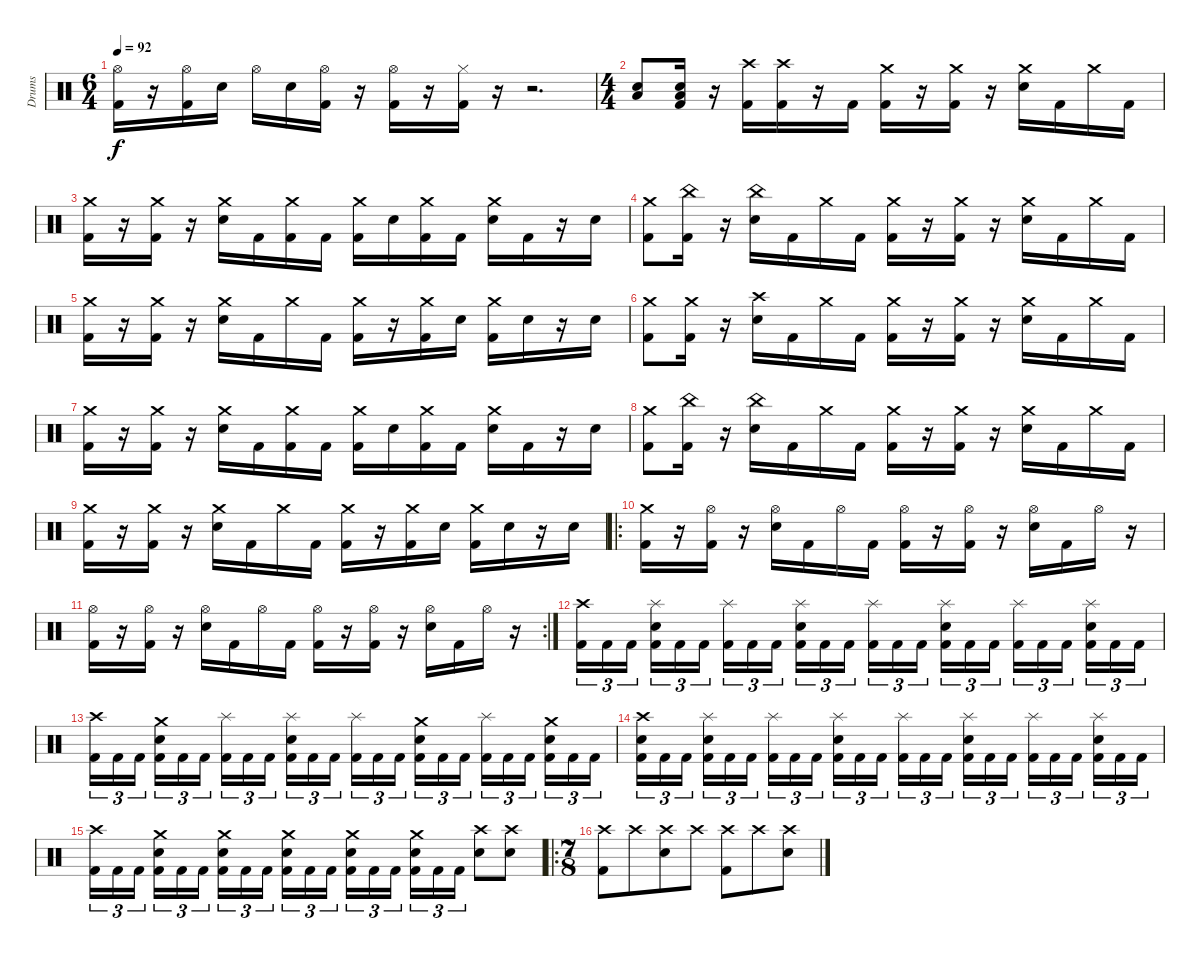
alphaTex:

\track ("Drums" "Drums") {instrument percussion}
\staff {score}
\articulation defaults
\ts (6 4)
\tempo 92
\clef neutral
\ks c
("Hi-Hat (open)" "Kick (hit) 2").16{dy f} r.16 ("Hi-Hat (open)" "Kick (hit) 2").16 "Snare (hit) 2".16 "Hi-Hat (open)".16 "Snare (hit) 2".16 ("Hi-Hat (open)" "Kick (hit) 2").16 r.16 ("Hi-Hat (open)" "Kick (hit) 2").16 r.16 ("Hi-Hat (closed)" "Kick (hit) 2").16 r.16 r.2{d} |
\ts (4 4)
("Low Floor Tom (hit)" "Snare (hit) 2").8 ("Low Floor Tom (hit)" "Snare (hit) 2" "Kick (hit) 2").16 r.16 ("Crash high (hit)" "Kick (hit) 2").16 ("Crash high (hit)" "Kick (hit) 2").16 r.16 "Kick (hit) 2".16 ("Crash medium (hit)" "Kick (hit) 2").16 r.16 ("Crash medium (hit)" "Kick (hit) 2").16 r.16 ("Crash medium (hit)" "Snare (hit) 2").16 "Kick (hit) 2".16 "Crash medium (hit)".16 "Kick (hit) 2".16 |
("Crash medium (hit)" "Kick (hit) 2").16 r.16 ("Crash medium (hit)" "Kick (hit) 2").16 r.16 ("Crash medium (hit)" "Snare (hit) 2").16 "Kick (hit) 2".16 ("Crash medium (hit)" "Kick (hit) 2").16 "Kick (hit) 2".16 ("Crash medium (hit)" "Kick (hit) 2").16 "Snare (hit) 2".16 ("Crash medium (hit)" "Kick (hit) 2").16 "Kick (hit) 2".16 ("Crash medium (hit)" "Snare (hit) 2").16 "Kick (hit) 2".16 r.16 "Snare (hit) 2".16 |
("Crash medium (hit)" "Kick (hit) 2").8 ("China (hit)" "Kick (hit) 2").16 r.16 ("China (hit)" "Snare (hit) 2").16 "Kick (hit) 2".16 "Crash medium (hit)".16 "Kick (hit) 2".16 ("Crash medium (hit)" "Kick (hit) 2").16 r.16 ("Crash medium (hit)" "Kick (hit) 2").16 r.16 ("Crash medium (hit)" "Snare (hit) 2").16 "Kick (hit) 2".16 "Crash medium (hit)".16 "Kick (hit) 2".16 |
("Crash medium (hit)" "Kick (hit) 2").16 r.16 ("Crash medium (hit)" "Kick (hit) 2").16 r.16 ("Crash medium (hit)" "Snare (hit) 2").16 "Kick (hit) 2".16 "Crash medium (hit)".16 "Kick (hit) 2".16 ("Crash medium (hit)" "Kick (hit) 2").16 r.16 ("Crash medium (hit)" "Kick (hit) 2").16 "Snare (hit) 2".16 ("Crash medium (hit)" "Kick (hit) 2").16 "Snare (hit) 2".16 r.16 "Snare (hit) 2".16 |
("Crash medium (hit)" "Kick (hit) 2").8 ("Crash medium (hit)" "Kick (hit) 2").16 r.16 ("Crash high (hit)" "Snare (hit) 2").16 "Kick (hit) 2".16 "Crash medium (hit)".16 "Kick (hit) 2".16 ("Crash medium (hit)" "Kick (hit) 2").16 r.16 ("Crash medium (hit)" "Kick (hit) 2").16 r.16 ("Crash medium (hit)" "Snare (hit) 2").16 "Kick (hit) 2".16 "Crash medium (hit)".16 "Kick (hit) 2".16 |
("Crash medium (hit)" "Kick (hit) 2").16 r.16 ("Crash medium (hit)" "Kick (hit) 2").16 r.16 ("Crash medium (hit)" "Snare (hit) 2").16 "Kick (hit) 2".16 ("Crash medium (hit)" "Kick (hit) 2").16 "Kick (hit) 2".16 ("Crash medium (hit)" "Kick (hit) 2").16 "Snare (hit) 2".16 ("Crash medium (hit)" "Kick (hit) 2").16 "Kick (hit) 2".16 ("Crash medium (hit)" "Snare (hit) 2").16 "Kick (hit) 2".16 r.16 "Snare (hit) 2".16 |
("Crash medium (hit)" "Kick (hit) 2").8 ("China (hit)" "Kick (hit) 2").16 r.16 ("China (hit)" "Snare (hit) 2").16 "Kick (hit) 2".16 "Crash medium (hit)".16 "Kick (hit) 2".16 ("Crash medium (hit)" "Kick (hit) 2").16 r.16 ("Crash medium (hit)" "Kick (hit) 2").16 r.16 ("Crash medium (hit)" "Snare (hit) 2").16 "Kick (hit) 2".16 "Crash medium (hit)".16 "Kick (hit) 2".16 |
("Crash medium (hit)" "Kick (hit) 2").16 r.16 ("Crash medium (hit)" "Kick (hit) 2").16 r.16 ("Crash medium (hit)" "Snare (hit) 2").16 "Kick (hit) 2".16 "Crash medium (hit)".16 "Kick (hit) 2".16 ("Crash medium (hit)" "Kick (hit) 2").16 r.16 ("Crash medium (hit)" "Kick (hit) 2").16 "Snare (hit) 2".16 ("Crash medium (hit)" "Kick (hit) 2").16 "Snare (hit) 2".16 r.16 "Snare (hit) 2".16 |
\ro
("Crash medium (hit)" "Kick (hit) 2").16 r.16 ("Hi-Hat (open)" "Kick (hit) 2").16 r.16 ("Hi-Hat (open)" "Snare (hit) 2").16 "Kick (hit) 2".16 "Hi-Hat (open)".16 "Kick (hit) 2".16 ("Hi-Hat (open)" "Kick (hit) 2").16 r.16 ("Hi-Hat (open)" "Kick (hit) 2").16 r.16 ("Hi-Hat (open)" "Snare (hit) 2").16 "Kick (hit) 2".16 "Hi-Hat (open)".16 r.16 |
\rc 2
("Hi-Hat (open)" "Kick (hit) 2").16 r.16 ("Hi-Hat (open)" "Kick (hit) 2").16 r.16 ("Hi-Hat (open)" "Snare (hit) 2").16 "Kick (hit) 2".16 "Hi-Hat (open)".16 "Kick (hit) 2".16 ("Hi-Hat (open)" "Kick (hit) 2").16 r.16 ("Hi-Hat (open)" "Kick (hit) 2").16 r.16 ("Hi-Hat (open)" "Snare (hit) 2").16 "Kick (hit) 2".16 "Hi-Hat (open)".16 r.16 |
("Crash high (hit)" "Kick (hit) 2").16{tu (3 2)} "Kick (hit) 2".16{tu (3 2)} "Kick (hit) 2".16{tu (3 2)} ("Splash (hit)" "Snare (hit) 2" "Kick (hit) 2").16{tu (3 2)} "Kick (hit) 2".16{tu (3 2)} "Kick (hit) 2".16{tu (3 2)} ("Splash (hit)" "Kick (hit) 2").16{tu (3 2)} "Kick (hit) 2".16{tu (3 2)} "Kick (hit) 2".16{tu (3 2)} ("Splash (hit)" "Snare (hit) 2" "Kick (hit) 2").16{tu (3 2)} "Kick (hit) 2".16{tu (3 2)} "Kick (hit) 2".16{tu (3 2)} ("Splash (hit)" "Kick (hit) 2").16{tu (3 2)} "Kick (hit) 2".16{tu (3 2)} "Kick (hit) 2".16{tu (3 2)} ("Splash (hit)" "Snare (hit) 2" "Kick (hit) 2").16{tu (3 2)} "Kick (hit) 2".16{tu (3 2)} "Kick (hit) 2".16{tu (3 2)} ("Splash (hit)" "Kick (hit) 2").16{tu (3 2)} "Kick (hit) 2".16{tu (3 2)} "Kick (hit) 2".16{tu (3 2)} ("Splash (hit)" "Snare (hit) 2" "Kick (hit) 2").16{tu (3 2)} "Kick (hit) 2".16{tu (3 2)} "Kick (hit) 2".16{tu (3 2)} |
("Crash high (hit)" "Kick (hit) 2").16{tu (3 2)} "Kick (hit) 2".16{tu (3 2)} "Kick (hit) 2".16{tu (3 2)} ("Crash medium (hit)" "Snare (hit) 2" "Kick (hit) 2").16{tu (3 2)} "Kick (hit) 2".16{tu (3 2)} "Kick (hit) 2".16{tu (3 2)} ("Splash (hit)" "Kick (hit) 2").16{tu (3 2)} "Kick (hit) 2".16{tu (3 2)} "Kick (hit) 2".16{tu (3 2)} ("Splash (hit)" "Snare (hit) 2" "Kick (hit) 2").16{tu (3 2)} "Kick (hit) 2".16{tu (3 2)} "Kick (hit) 2".16{tu (3 2)} ("Splash (hit)" "Kick (hit) 2").16{tu (3 2)} "Kick (hit) 2".16{tu (3 2)} "Kick (hit) 2".16{tu (3 2)} ("Crash medium (hit)" "Snare (hit) 2" "Kick (hit) 2").16{tu (3 2)} "Kick (hit) 2".16{tu (3 2)} "Kick (hit) 2".16{tu (3 2)} ("Splash (hit)" "Kick (hit) 2").16{tu (3 2)} "Kick (hit) 2".16{tu (3 2)} "Kick (hit) 2".16{tu (3 2)} ("Crash medium (hit)" "Snare (hit) 2" "Kick (hit) 2").16{tu (3 2)} "Kick (hit) 2".16{tu (3 2)} "Kick (hit) 2".16{tu (3 2)} |
("Crash high (hit)" "Snare (hit) 2" "Kick (hit) 2").16{tu (3 2)} "Kick (hit) 2".16{tu (3 2)} "Kick (hit) 2".16{tu (3 2)} ("Splash (hit)" "Snare (hit) 2" "Kick (hit) 2").16{tu (3 2)} "Kick (hit) 2".16{tu (3 2)} "Kick (hit) 2".16{tu (3 2)} ("Splash (hit)" "Kick (hit) 2").16{tu (3 2)} "Kick (hit) 2".16{tu (3 2)} "Kick (hit) 2".16{tu (3 2)} ("Splash (hit)" "Snare (hit) 2" "Kick (hit) 2").16{tu (3 2)} "Kick (hit) 2".16{tu (3 2)} "Kick (hit) 2".16{tu (3 2)} ("Splash (hit)" "Kick (hit) 2").16{tu (3 2)} "Kick (hit) 2".16{tu (3 2)} "Kick (hit) 2".16{tu (3 2)} ("Splash (hit)" "Snare (hit) 2" "Kick (hit) 2").16{tu (3 2)} "Kick (hit) 2".16{tu (3 2)} "Kick (hit) 2".16{tu (3 2)} ("Splash (hit)" "Kick (hit) 2").16{tu (3 2)} "Kick (hit) 2".16{tu (3 2)} "Kick (hit) 2".16{tu (3 2)} ("Splash (hit)" "Snare (hit) 2" "Kick (hit) 2").16{tu (3 2)} "Kick (hit) 2".16{tu (3 2)} "Kick (hit) 2".16{tu (3 2)} |
("Crash high (hit)" "Kick (hit) 2").16{tu (3 2)} "Kick (hit) 2".16{tu (3 2)} "Kick (hit) 2".16{tu (3 2)} ("Crash medium (hit)" "Snare (hit) 2" "Kick (hit) 2").16{tu (3 2)} "Kick (hit) 2".16{tu (3 2)} "Kick (hit) 2".16{tu (3 2)} ("Crash medium (hit)" "Snare (hit) 2" "Kick (hit) 2").16{tu (3 2)} "Kick (hit) 2".16{tu (3 2)} "Kick (hit) 2".16{tu (3 2)} ("Crash medium (hit)" "Snare (hit) 2" "Kick (hit) 2").16{tu (3 2)} "Kick (hit) 2".16{tu (3 2)} "Kick (hit) 2".16{tu (3 2)} ("Crash medium (hit)" "Snare (hit) 2" "Kick (hit) 2").16{tu (3 2)} "Kick (hit) 2".16{tu (3 2)} "Kick (hit) 2".16{tu (3 2)} ("Crash medium (hit)" "Snare (hit) 2" "Kick (hit) 2").16{tu (3 2)} "Kick (hit) 2".16{tu (3 2)} "Kick (hit) 2".16{tu (3 2)} ("Crash high (hit)" "Snare (hit) 2").8 ("Crash high (hit)" "Snare (hit) 2").8 |
\ro
\ts (7 8)
("Crash high (hit)" "Kick (hit) 2").8 "Crash high (hit)".8 ("Crash high (hit)" "Snare (hit) 2").8 "Crash high (hit)".8 ("Crash high (hit)" "Kick (hit) 2").8 "Crash high (hit)".8 ("Crash high (hit)" "Snare (hit) 2").8
